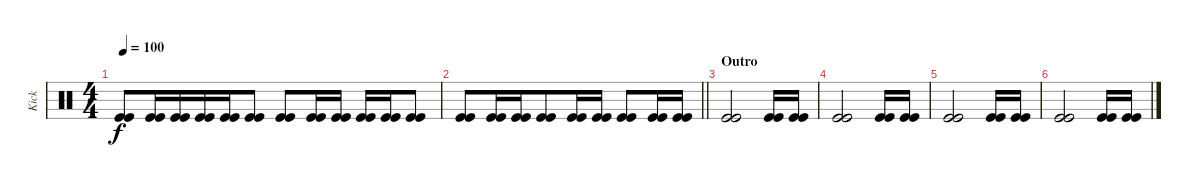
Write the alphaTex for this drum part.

\track ("Kick" "Kick") {instrument percussion}
\staff {score}
\articulation defaults
\ts (4 4)
\tempo 100
\clef neutral
\ks c
("Kick (hit)" "Kick (hit)").8{dy f} ("Kick (hit)" "Kick (hit)").16{beam merge} ("Kick (hit)" "Kick (hit)").16{beam merge} ("Kick (hit)" "Kick (hit)").16 ("Kick (hit)" "Kick (hit)").16{beam merge} ("Kick (hit)" "Kick (hit)").8 ("Kick (hit)" "Kick (hit)").8 ("Kick (hit)" "Kick (hit)").16 ("Kick (hit)" "Kick (hit)").16 ("Kick (hit)" "Kick (hit)").16 ("Kick (hit)" "Kick (hit)").16 ("Kick (hit)" "Kick (hit)").8 |
\barLineRight lightlight
("Kick (hit)" "Kick (hit)").8 ("Kick (hit)" "Kick (hit)").16{beam merge} ("Kick (hit)" "Kick (hit)").16{beam merge} ("Kick (hit)" "Kick (hit)").8 ("Kick (hit)" "Kick (hit)").16{beam merge} ("Kick (hit)" "Kick (hit)").16 ("Kick (hit)" "Kick (hit)").8{beam merge} ("Kick (hit)" "Kick (hit)").16{beam merge} ("Kick (hit)" "Kick (hit)").16 |
\section ("" "Outro")
("Kick (hit)" "Kick (hit)").2{beam merge} ("Kick (hit)" "Kick (hit)").16 ("Kick (hit)" "Kick (hit)").16 |
("Kick (hit)" "Kick (hit)").2{beam merge} ("Kick (hit)" "Kick (hit)").16 ("Kick (hit)" "Kick (hit)").16 |
("Kick (hit)" "Kick (hit)").2{beam merge} ("Kick (hit)" "Kick (hit)").16 ("Kick (hit)" "Kick (hit)").16 |
("Kick (hit)" "Kick (hit)").2{beam merge} ("Kick (hit)" "Kick (hit)").16 ("Kick (hit)" "Kick (hit)").16
